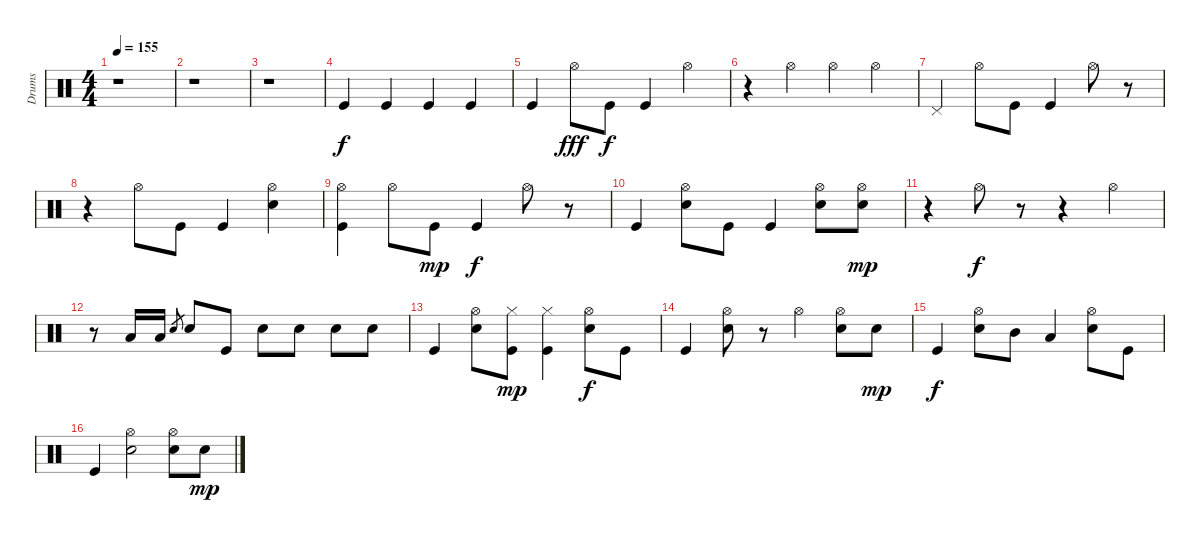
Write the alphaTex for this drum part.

\track ("Drums" "Drums") {instrument percussion}
\staff {score}
\articulation defaults
\ts (4 4)
\tempo 155
\clef neutral
\ks c
r.1{dy f} |
r.1 |
r.1 |
"Kick (hit)".4 "Kick (hit)".4 "Kick (hit)".4 "Kick (hit)".4 |
"Kick (hit)".4 "Hi-Hat (open)".8{dy fff} "Kick (hit)".8{dy f} "Kick (hit)".4 "Hi-Hat (open)".4 |
r.4 "Hi-Hat (open)".4 "Hi-Hat (open)".4 "Hi-Hat (open)".4 |
"Pedal Hi-Hat (hit)".4 "Hi-Hat (open)".8 "Kick (hit)".8 "Kick (hit)".4 "Hi-Hat (open)".8 r.8 |
r.4 "Hi-Hat (open)".8 "Kick (hit)".8 "Kick (hit)".4 ("Hi-Hat (open)" "Snare (hit) 2").4 |
("Kick (hit)" "Hi-Hat (open)").4 "Hi-Hat (open)".8 "Kick (hit)".8{dy mp} "Kick (hit)".4{dy f} "Hi-Hat (open)".8 r.8 |
"Kick (hit)".4 ("Hi-Hat (open)" "Snare (hit) 2").8 "Kick (hit)".8 "Kick (hit)".4 ("Hi-Hat (open)" "Snare (hit) 2").8 ("Hi-Hat (open)" "Snare (hit) 2").8{dy mp} |
r.4 "Hi-Hat (open)".8{dy f} r.8 r.4 "Hi-Hat (open)".4 |
r.8 "Low Tom (hit)".16 "Low Tom (hit)".16 "Snare (hit) 2".8{gr} "Snare (hit) 2".8 "Kick (hit)".8 "Snare (hit) 2".8 "Snare (hit) 2".8 "Snare (hit) 2".8 "Snare (hit) 2".8 |
"Kick (hit)".4 ("Snare (hit) 2" "Hi-Hat (open)").8 ("Kick (hit)" "Hi-Hat (closed)").8{dy mp} ("Kick (hit)" "Hi-Hat (closed)").4 ("Snare (hit) 2" "Hi-Hat (open)").8{dy f} "Kick (hit)".8 |
"Kick (hit)".4 ("Snare (hit) 2" "Hi-Hat (open)").8 r.8 "Hi-Hat (open)".4 ("Snare (hit) 2" "Hi-Hat (open)").8 "Snare (hit) 2".8{dy mp} |
"Kick (hit)".4{dy f} ("Snare (hit) 2" "Hi-Hat (open)").8 "Mid Tom (hit)".8 "Low Tom (hit)".4 ("Snare (hit) 2" "Hi-Hat (open)").8 "Kick (hit)".8 |
"Kick (hit)".4 ("Snare (hit) 2" "Hi-Hat (open)").2 ("Snare (hit) 2" "Hi-Hat (open)").8 "Snare (hit) 2".8{dy mp}
